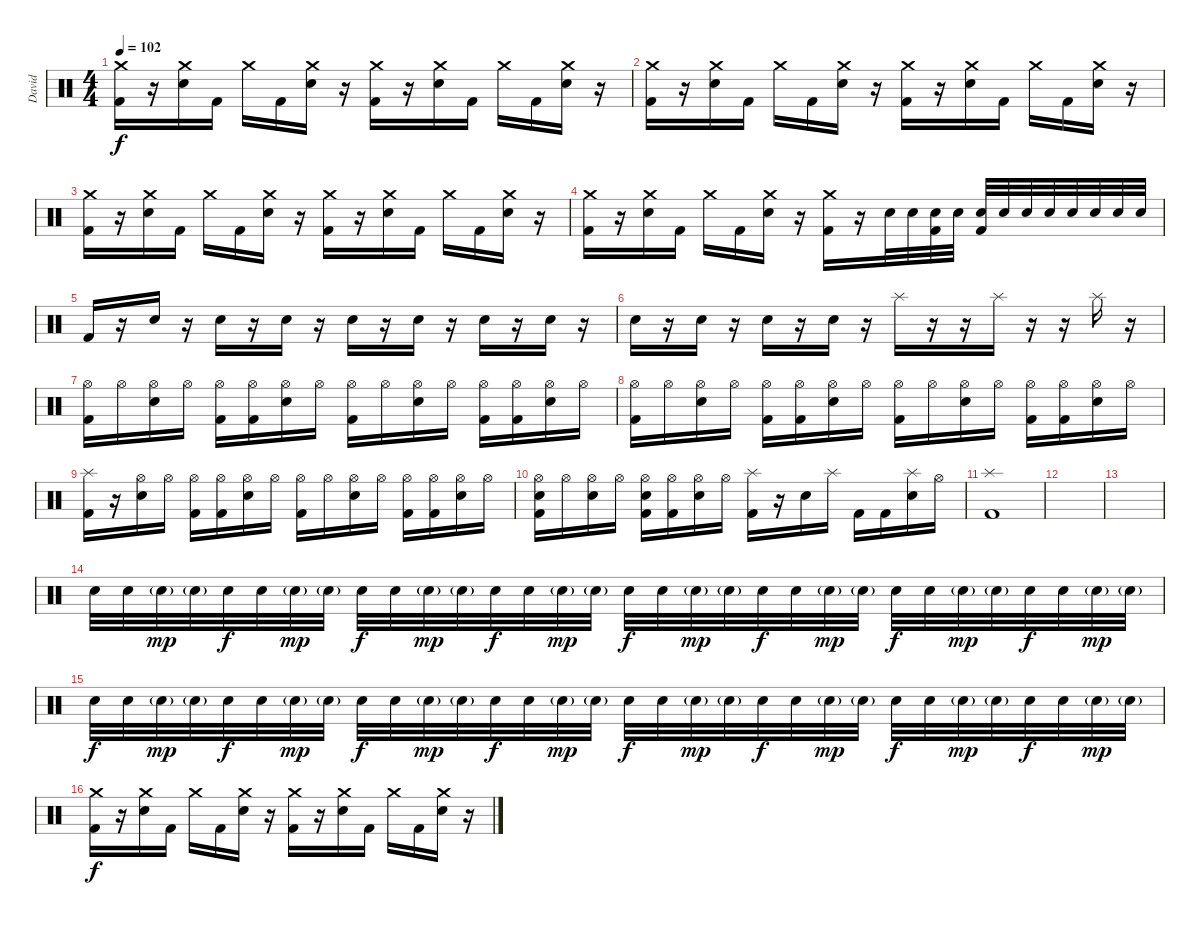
\track ("David" "David") {instrument percussion}
\staff {score}
\articulation defaults
\ts (4 4)
\tempo 102
\clef neutral
\ks c
("Crash medium (hit)" "Kick (hit) 2").16{dy f} r.16 ("Crash medium (hit)" "Electric Snare (hit)").16 "Kick (hit) 2".16 "Crash medium (hit)".16 "Kick (hit) 2".16 ("Crash medium (hit)" "Electric Snare (hit)").16 r.16 ("Crash medium (hit)" "Kick (hit) 2").16 r.16 ("Crash medium (hit)" "Electric Snare (hit)").16 "Kick (hit) 2".16 "Crash medium (hit)".16 "Kick (hit) 2".16 ("Crash medium (hit)" "Electric Snare (hit)").16 r.16 |
("Crash medium (hit)" "Kick (hit) 2").16 r.16 ("Crash medium (hit)" "Electric Snare (hit)").16 "Kick (hit) 2".16 "Crash medium (hit)".16 "Kick (hit) 2".16 ("Crash medium (hit)" "Electric Snare (hit)").16 r.16 ("Crash medium (hit)" "Kick (hit) 2").16 r.16 ("Crash medium (hit)" "Electric Snare (hit)").16 "Kick (hit) 2".16 "Crash medium (hit)".16 "Kick (hit) 2".16 ("Crash medium (hit)" "Electric Snare (hit)").16 r.16 |
("Crash medium (hit)" "Kick (hit) 2").16 r.16 ("Crash medium (hit)" "Electric Snare (hit)").16 "Kick (hit) 2".16 "Crash medium (hit)".16 "Kick (hit) 2".16 ("Crash medium (hit)" "Electric Snare (hit)").16 r.16 ("Crash medium (hit)" "Kick (hit) 2").16 r.16 ("Crash medium (hit)" "Electric Snare (hit)").16 "Kick (hit) 2".16 "Crash medium (hit)".16 "Kick (hit) 2".16 ("Crash medium (hit)" "Electric Snare (hit)").16 r.16 |
("Crash medium (hit)" "Kick (hit) 2").16 r.16 ("Crash medium (hit)" "Electric Snare (hit)").16 "Kick (hit) 2".16 "Crash medium (hit)".16 "Kick (hit) 2".16 ("Crash medium (hit)" "Electric Snare (hit)").16 r.16 ("Crash medium (hit)" "Kick (hit) 2").16 r.16 "Electric Snare (hit)".32 "Electric Snare (hit)".32 ("Electric Snare (hit)" "Kick (hit) 2").32 "Electric Snare (hit)".32 ("Electric Snare (hit)" "Kick (hit) 2").32 "Electric Snare (hit)".32 "Electric Snare (hit)".32 "Electric Snare (hit)".32 "Electric Snare (hit)".32 "Electric Snare (hit)".32 "Electric Snare (hit)".32 "Electric Snare (hit)".32 |
"Kick (hit) 2".16 r.16 "Electric Snare (hit)".16 r.16 "Electric Snare (hit)".16 r.16 "Electric Snare (hit)".16 r.16 "Electric Snare (hit)".16 r.16 "Electric Snare (hit)".16 r.16 "Electric Snare (hit)".16 r.16 "Electric Snare (hit)".16 r.16 |
"Electric Snare (hit)".16 r.16 "Electric Snare (hit)".16 r.16 "Electric Snare (hit)".16 r.16 "Electric Snare (hit)".16 r.16 "Splash (hit)".16 r.16 r.16 "Splash (hit)".16 r.16 r.16 "Splash (hit)".16 r.16 |
("Hi-Hat (open)" "Kick (hit) 2").16 "Hi-Hat (open)".16 ("Hi-Hat (open)" "Electric Snare (hit)").16 "Hi-Hat (open)".16 ("Hi-Hat (open)" "Kick (hit) 2").16 ("Hi-Hat (open)" "Kick (hit) 2").16 ("Hi-Hat (open)" "Electric Snare (hit)").16 "Hi-Hat (open)".16 ("Hi-Hat (open)" "Kick (hit) 2").16 "Hi-Hat (open)".16 ("Hi-Hat (open)" "Electric Snare (hit)").16 "Hi-Hat (open)".16 ("Hi-Hat (open)" "Kick (hit) 2").16 ("Hi-Hat (open)" "Kick (hit) 2").16 ("Hi-Hat (open)" "Electric Snare (hit)").16 "Hi-Hat (open)".16 |
("Hi-Hat (open)" "Kick (hit) 2").16 "Hi-Hat (open)".16 ("Hi-Hat (open)" "Electric Snare (hit)").16 "Hi-Hat (open)".16 ("Hi-Hat (open)" "Kick (hit) 2").16 ("Hi-Hat (open)" "Kick (hit) 2").16 ("Hi-Hat (open)" "Electric Snare (hit)").16 "Hi-Hat (open)".16 ("Hi-Hat (open)" "Kick (hit) 2").16 "Hi-Hat (open)".16 ("Hi-Hat (open)" "Electric Snare (hit)").16 "Hi-Hat (open)".16 ("Hi-Hat (open)" "Kick (hit) 2").16 ("Hi-Hat (open)" "Kick (hit) 2").16 ("Hi-Hat (open)" "Electric Snare (hit)").16 "Hi-Hat (open)".16 |
("Splash (hit)" "Kick (hit) 2").16 r.16 ("Hi-Hat (open)" "Electric Snare (hit)").16 "Hi-Hat (open)".16 ("Hi-Hat (open)" "Kick (hit) 2").16 ("Hi-Hat (open)" "Kick (hit) 2").16 ("Hi-Hat (open)" "Electric Snare (hit)").16 "Hi-Hat (open)".16 ("Hi-Hat (open)" "Kick (hit) 2").16 "Hi-Hat (open)".16 ("Hi-Hat (open)" "Electric Snare (hit)").16 "Hi-Hat (open)".16 ("Hi-Hat (open)" "Kick (hit) 2").16 ("Hi-Hat (open)" "Kick (hit) 2").16 ("Hi-Hat (open)" "Electric Snare (hit)").16 "Hi-Hat (open)".16 |
("Hi-Hat (open)" "Electric Snare (hit)" "Kick (hit) 2").16 "Hi-Hat (open)".16 ("Hi-Hat (open)" "Electric Snare (hit)").16 "Hi-Hat (open)".16 ("Hi-Hat (open)" "Electric Snare (hit)" "Kick (hit) 2").16 ("Hi-Hat (open)" "Kick (hit) 2").16 ("Hi-Hat (open)" "Electric Snare (hit)").16 "Hi-Hat (open)".16 ("Splash (hit)" "Kick (hit) 2").16 r.16 "Electric Snare (hit)".16 "Splash (hit)".16 "Kick (hit) 2".16 "Kick (hit) 2".16 ("Splash (hit)" "Electric Snare (hit)").16 "Hi-Hat (open)".16 |
("Splash (hit)" "Kick (hit) 2").1 |
|
|
"Electric Snare (hit)".32 "Electric Snare (hit)".32 "Electric Snare (hit)"{g}.32{dy mp} "Electric Snare (hit)"{g}.32 "Electric Snare (hit)".32{dy f} "Electric Snare (hit)".32 "Electric Snare (hit)"{g}.32{dy mp} "Electric Snare (hit)"{g}.32 "Electric Snare (hit)".32{dy f} "Electric Snare (hit)".32 "Electric Snare (hit)"{g}.32{dy mp} "Electric Snare (hit)"{g}.32 "Electric Snare (hit)".32{dy f} "Electric Snare (hit)".32 "Electric Snare (hit)"{g}.32{dy mp} "Electric Snare (hit)"{g}.32 "Electric Snare (hit)".32{dy f} "Electric Snare (hit)".32 "Electric Snare (hit)"{g}.32{dy mp} "Electric Snare (hit)"{g}.32 "Electric Snare (hit)".32{dy f} "Electric Snare (hit)".32 "Electric Snare (hit)"{g}.32{dy mp} "Electric Snare (hit)"{g}.32 "Electric Snare (hit)".32{dy f} "Electric Snare (hit)".32 "Electric Snare (hit)"{g}.32{dy mp} "Electric Snare (hit)"{g}.32 "Electric Snare (hit)".32{dy f} "Electric Snare (hit)".32 "Electric Snare (hit)"{g}.32{dy mp} "Electric Snare (hit)"{g}.32 |
"Electric Snare (hit)".32{dy f} "Electric Snare (hit)".32 "Electric Snare (hit)"{g}.32{dy mp} "Electric Snare (hit)"{g}.32 "Electric Snare (hit)".32{dy f} "Electric Snare (hit)".32 "Electric Snare (hit)"{g}.32{dy mp} "Electric Snare (hit)"{g}.32 "Electric Snare (hit)".32{dy f} "Electric Snare (hit)".32 "Electric Snare (hit)"{g}.32{dy mp} "Electric Snare (hit)"{g}.32 "Electric Snare (hit)".32{dy f} "Electric Snare (hit)".32 "Electric Snare (hit)"{g}.32{dy mp} "Electric Snare (hit)"{g}.32 "Electric Snare (hit)".32{dy f} "Electric Snare (hit)".32 "Electric Snare (hit)"{g}.32{dy mp} "Electric Snare (hit)"{g}.32 "Electric Snare (hit)".32{dy f} "Electric Snare (hit)".32 "Electric Snare (hit)"{g}.32{dy mp} "Electric Snare (hit)"{g}.32 "Electric Snare (hit)".32{dy f} "Electric Snare (hit)".32 "Electric Snare (hit)"{g}.32{dy mp} "Electric Snare (hit)"{g}.32 "Electric Snare (hit)".32{dy f} "Electric Snare (hit)".32 "Electric Snare (hit)"{g}.32{dy mp} "Electric Snare (hit)"{g}.32 |
("Crash medium (hit)" "Kick (hit) 2").16{dy f} r.16 ("Crash medium (hit)" "Electric Snare (hit)").16 "Kick (hit) 2".16 "Crash medium (hit)".16 "Kick (hit) 2".16 ("Crash medium (hit)" "Electric Snare (hit)").16 r.16 ("Crash medium (hit)" "Kick (hit) 2").16 r.16 ("Crash medium (hit)" "Electric Snare (hit)").16 "Kick (hit) 2".16 "Crash medium (hit)".16 "Kick (hit) 2".16 ("Crash medium (hit)" "Electric Snare (hit)").16 r.16
